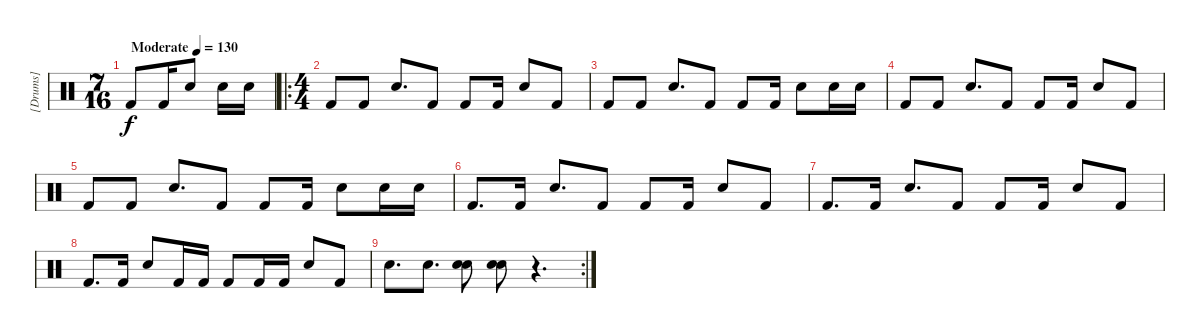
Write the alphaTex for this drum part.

\track ("[Drums]" "[Drums]") {instrument percussion}
\staff {score}
\articulation defaults
\ts (7 16)
\tempo (130 "Moderate")
\clef neutral
\ks c "Kick (hit) 2".8{dy f} "Kick (hit) 2".16 "Electric Snare (hit)".8 "Electric Snare (hit)".16 "Electric Snare (hit)".16
|
\ro
\ts (4 4)
"Kick (hit) 2".8 "Kick (hit) 2".8 "Electric Snare (hit)".8{d} "Kick (hit) 2".8 "Kick (hit) 2".8 "Kick (hit) 2".16 "Electric Snare (hit)".8 "Kick (hit) 2".8 |
"Kick (hit) 2".8 "Kick (hit) 2".8 "Electric Snare (hit)".8{d} "Kick (hit) 2".8 "Kick (hit) 2".8 "Kick (hit) 2".16 "Electric Snare (hit)".8 "Electric Snare (hit)".16 "Electric Snare (hit)".16 |
"Kick (hit) 2".8 "Kick (hit) 2".8 "Electric Snare (hit)".8{d} "Kick (hit) 2".8 "Kick (hit) 2".8 "Kick (hit) 2".16 "Electric Snare (hit)".8 "Kick (hit) 2".8 |
"Kick (hit) 2".8 "Kick (hit) 2".8 "Electric Snare (hit)".8{d} "Kick (hit) 2".8 "Kick (hit) 2".8 "Kick (hit) 2".16 "Electric Snare (hit)".8 "Electric Snare (hit)".16 "Electric Snare (hit)".16 |
"Kick (hit) 2".8{d} "Kick (hit) 2".16 "Electric Snare (hit)".8{d} "Kick (hit) 2".8 "Kick (hit) 2".8 "Kick (hit) 2".16 "Electric Snare (hit)".8 "Kick (hit) 2".8 |
"Kick (hit) 2".8{d} "Kick (hit) 2".16 "Electric Snare (hit)".8{d} "Kick (hit) 2".8 "Kick (hit) 2".8 "Kick (hit) 2".16 "Electric Snare (hit)".8 "Kick (hit) 2".8 |
"Kick (hit) 2".8{d} "Kick (hit) 2".16 "Electric Snare (hit)".8 "Kick (hit) 2".16 "Kick (hit) 2".16 "Kick (hit) 2".8 "Kick (hit) 2".16 "Kick (hit) 2".16 "Electric Snare (hit)".8 "Kick (hit) 2".8 |
\rc 2 "Electric Snare (hit)".8{d} "Electric Snare (hit)".8{d}
("Electric Snare (hit)" "Electric Snare (hit)").8{bd 240} ("Electric Snare (hit)" "Electric Snare (hit)").8{bd 240} r.4{d}
